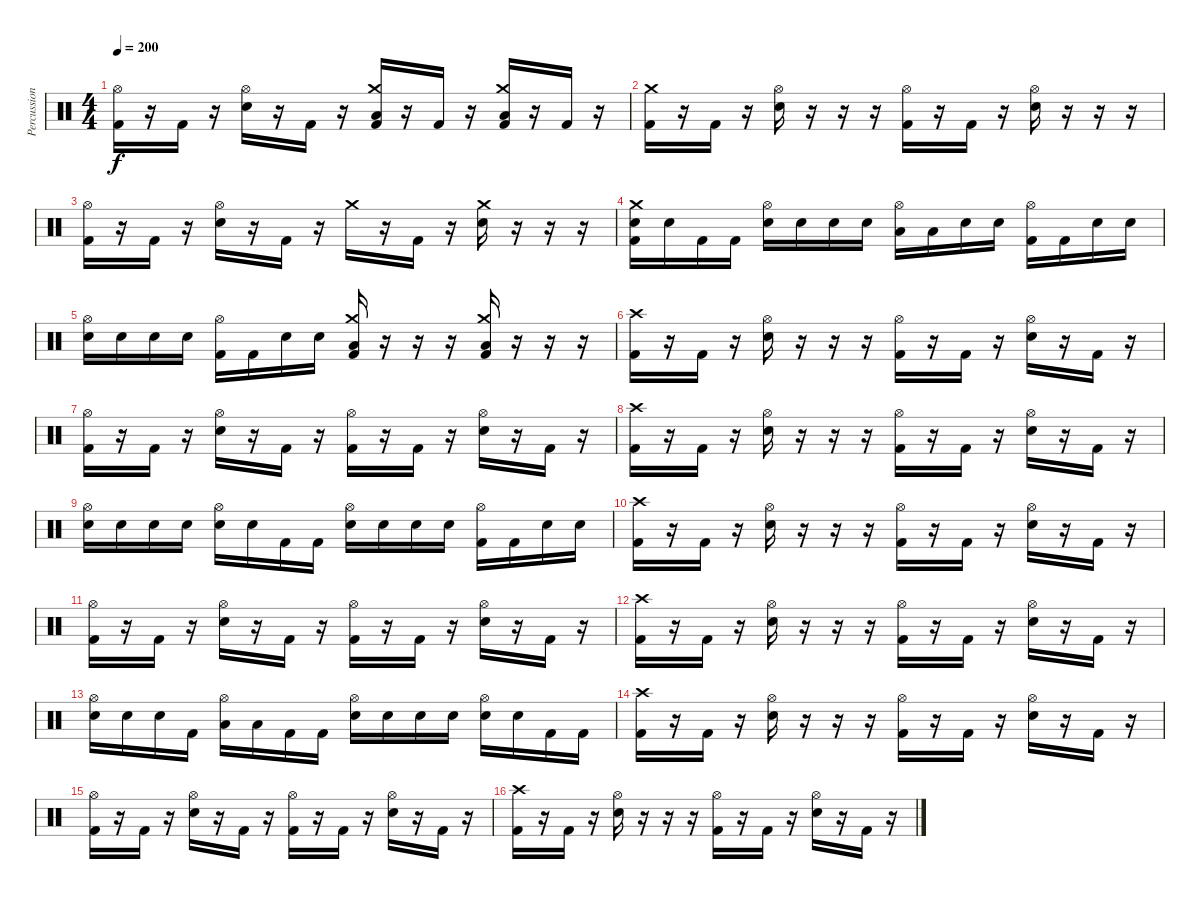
\track ("Percussion" "Percussion") {instrument percussion}
\staff {score}
\articulation defaults
\ts (4 4)
\tempo 200
\clef neutral
\ks c
("Hi-Hat (open)" "Kick (hit) 2").16{dy f} r.16 "Kick (hit) 2".16 r.16 ("Hi-Hat (open)" "Snare (hit) 2").16 r.16 "Kick (hit) 2".16 r.16 ("Crash medium (hit)" "Low Floor Tom (hit)" "Kick (hit) 2").16 r.16 "Kick (hit) 2".16 r.16 ("Crash medium (hit)" "Low Floor Tom (hit)" "Kick (hit) 2").16 r.16 "Kick (hit) 2".16 r.16 |
("Crash medium (hit)" "Kick (hit) 2").16 r.16 "Kick (hit) 2".16 r.16 ("Hi-Hat (open)" "Snare (hit) 2").16 r.16 r.16 r.16 ("Hi-Hat (open)" "Kick (hit) 2").16 r.16 "Kick (hit) 2".16 r.16 ("Hi-Hat (open)" "Snare (hit) 2").16 r.16 r.16 r.16 |
("Hi-Hat (open)" "Kick (hit) 2").16 r.16 "Kick (hit) 2".16 r.16 ("Hi-Hat (open)" "Snare (hit) 2").16 r.16 "Kick (hit) 2".16 r.16 "Crash medium (hit)".16 r.16 "Kick (hit) 2".16 r.16 ("Crash medium (hit)" "Snare (hit) 2").16 r.16 r.16 r.16 |
("Crash medium (hit)" "Snare (hit) 2" "Kick (hit) 2").16 "Snare (hit) 2".16 "Kick (hit) 2".16 "Kick (hit) 2".16 ("Hi-Hat (open)" "Snare (hit) 2").16 "Snare (hit) 2".16 "Snare (hit) 2".16 "Snare (hit) 2".16 ("Hi-Hat (open)" "Low Tom (hit)").16 "Low Tom (hit)".16 "Snare (hit) 2".16 "Snare (hit) 2".16 ("Hi-Hat (open)" "Kick (hit) 2").16 "Kick (hit) 2".16 "Snare (hit) 2".16 "Snare (hit) 2".16 |
("Hi-Hat (open)" "Snare (hit) 2").16 "Snare (hit) 2".16 "Snare (hit) 2".16 "Snare (hit) 2".16 ("Hi-Hat (open)" "Kick (hit) 2").16 "Kick (hit) 2".16 "Snare (hit) 2".16 "Snare (hit) 2".16 ("Crash medium (hit)" "Low Floor Tom (hit)" "Kick (hit) 2").16 r.16 r.16 r.16 ("Crash medium (hit)" "Low Floor Tom (hit)" "Kick (hit) 2").16 r.16 r.16 r.16 |
("Crash high (hit)" "Kick (hit) 2").16 r.16 "Kick (hit) 2".16 r.16 ("Hi-Hat (open)" "Snare (hit) 2").16 r.16 r.16 r.16 ("Hi-Hat (open)" "Kick (hit) 2").16 r.16 "Kick (hit) 2".16 r.16 ("Hi-Hat (open)" "Snare (hit) 2").16 r.16 "Kick (hit) 2".16 r.16 |
("Hi-Hat (open)" "Kick (hit) 2").16 r.16 "Kick (hit) 2".16 r.16 ("Hi-Hat (open)" "Snare (hit) 2").16 r.16 "Kick (hit) 2".16 r.16 ("Hi-Hat (open)" "Kick (hit) 2").16 r.16 "Kick (hit) 2".16 r.16 ("Hi-Hat (open)" "Snare (hit) 2").16 r.16 "Kick (hit) 2".16 r.16 |
("Crash high (hit)" "Kick (hit) 2").16 r.16 "Kick (hit) 2".16 r.16 ("Hi-Hat (open)" "Snare (hit) 2").16 r.16 r.16 r.16 ("Hi-Hat (open)" "Kick (hit) 2").16 r.16 "Kick (hit) 2".16 r.16 ("Hi-Hat (open)" "Snare (hit) 2").16 r.16 "Kick (hit) 2".16 r.16 |
("Hi-Hat (open)" "Snare (hit) 2").16 "Snare (hit) 2".16 "Snare (hit) 2".16 "Snare (hit) 2".16 ("Hi-Hat (open)" "Snare (hit) 2").16 "Snare (hit) 2".16 "Kick (hit) 2".16 "Kick (hit) 2".16 ("Hi-Hat (open)" "Snare (hit) 2").16 "Snare (hit) 2".16 "Snare (hit) 2".16 "Snare (hit) 2".16 ("Hi-Hat (open)" "Kick (hit) 2").16 "Kick (hit) 2".16 "Snare (hit) 2".16 "Snare (hit) 2".16 |
("Crash high (hit)" "Kick (hit) 2").16 r.16 "Kick (hit) 2".16 r.16 ("Hi-Hat (open)" "Snare (hit) 2").16 r.16 r.16 r.16 ("Hi-Hat (open)" "Kick (hit) 2").16 r.16 "Kick (hit) 2".16 r.16 ("Hi-Hat (open)" "Snare (hit) 2").16 r.16 "Kick (hit) 2".16 r.16 |
("Hi-Hat (open)" "Kick (hit) 2").16 r.16 "Kick (hit) 2".16 r.16 ("Hi-Hat (open)" "Snare (hit) 2").16 r.16 "Kick (hit) 2".16 r.16 ("Hi-Hat (open)" "Kick (hit) 2").16 r.16 "Kick (hit) 2".16 r.16 ("Hi-Hat (open)" "Snare (hit) 2").16 r.16 "Kick (hit) 2".16 r.16 |
("Crash high (hit)" "Kick (hit) 2").16 r.16 "Kick (hit) 2".16 r.16 ("Hi-Hat (open)" "Snare (hit) 2").16 r.16 r.16 r.16 ("Hi-Hat (open)" "Kick (hit) 2").16 r.16 "Kick (hit) 2".16 r.16 ("Hi-Hat (open)" "Snare (hit) 2").16 r.16 "Kick (hit) 2".16 r.16 |
("Hi-Hat (open)" "Snare (hit) 2").16 "Snare (hit) 2".16 "Snare (hit) 2".16 "Kick (hit) 2".16 ("Hi-Hat (open)" "Low Tom (hit)").16 "Low Tom (hit)".16 "Kick (hit) 2".16 "Kick (hit) 2".16 ("Hi-Hat (open)" "Snare (hit) 2").16 "Snare (hit) 2".16 "Snare (hit) 2".16 "Snare (hit) 2".16 ("Hi-Hat (open)" "Snare (hit) 2").16 "Snare (hit) 2".16 "Kick (hit) 2".16 "Kick (hit) 2".16 |
("Crash high (hit)" "Kick (hit) 2").16 r.16 "Kick (hit) 2".16 r.16 ("Hi-Hat (open)" "Snare (hit) 2").16 r.16 r.16 r.16 ("Hi-Hat (open)" "Kick (hit) 2").16 r.16 "Kick (hit) 2".16 r.16 ("Hi-Hat (open)" "Snare (hit) 2").16 r.16 "Kick (hit) 2".16 r.16 |
("Hi-Hat (open)" "Kick (hit) 2").16 r.16 "Kick (hit) 2".16 r.16 ("Hi-Hat (open)" "Snare (hit) 2").16 r.16 "Kick (hit) 2".16 r.16 ("Hi-Hat (open)" "Kick (hit) 2").16 r.16 "Kick (hit) 2".16 r.16 ("Hi-Hat (open)" "Snare (hit) 2").16 r.16 "Kick (hit) 2".16 r.16 |
("Crash high (hit)" "Kick (hit) 2").16 r.16 "Kick (hit) 2".16 r.16 ("Hi-Hat (open)" "Snare (hit) 2").16 r.16 r.16 r.16 ("Hi-Hat (open)" "Kick (hit) 2").16 r.16 "Kick (hit) 2".16 r.16 ("Hi-Hat (open)" "Snare (hit) 2").16 r.16 "Kick (hit) 2".16 r.16
